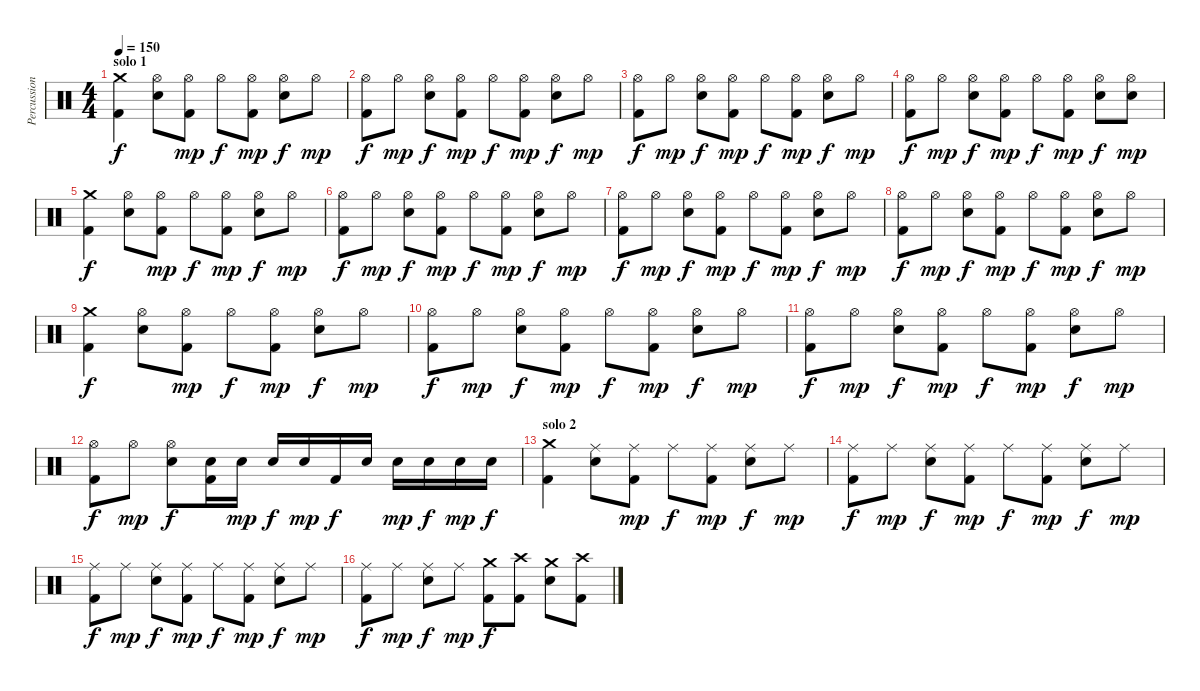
\track ("Percussions" "Percussion") {instrument percussion}
\staff {score}
\articulation defaults
\ts (4 4)
\section ("" "solo 1")
\tempo 150
\clef neutral
\ks c
("Crash medium (hit)" "Kick (hit) 2").4{dy f} ("Hi-Hat (open)" "Electric Snare (hit)").8 ("Hi-Hat (open)" "Kick (hit) 2").8{dy mp} "Hi-Hat (open)".8{dy f} ("Hi-Hat (open)" "Kick (hit) 2").8{dy mp} ("Hi-Hat (open)" "Electric Snare (hit)").8{dy f} "Hi-Hat (open)".8{dy mp} |
("Hi-Hat (open)" "Kick (hit) 2").8{dy f} "Hi-Hat (open)".8{dy mp} ("Hi-Hat (open)" "Electric Snare (hit)").8{dy f} ("Hi-Hat (open)" "Kick (hit) 2").8{dy mp} "Hi-Hat (open)".8{dy f} ("Hi-Hat (open)" "Kick (hit) 2").8{dy mp} ("Hi-Hat (open)" "Electric Snare (hit)").8{dy f} "Hi-Hat (open)".8{dy mp} |
("Hi-Hat (open)" "Kick (hit) 2").8{dy f} "Hi-Hat (open)".8{dy mp} ("Hi-Hat (open)" "Electric Snare (hit)").8{dy f} ("Hi-Hat (open)" "Kick (hit) 2").8{dy mp} "Hi-Hat (open)".8{dy f} ("Hi-Hat (open)" "Kick (hit) 2").8{dy mp} ("Hi-Hat (open)" "Electric Snare (hit)").8{dy f} "Hi-Hat (open)".8{dy mp} |
("Hi-Hat (open)" "Kick (hit) 2").8{dy f} "Hi-Hat (open)".8{dy mp} ("Hi-Hat (open)" "Electric Snare (hit)").8{dy f} ("Hi-Hat (open)" "Kick (hit) 2").8{dy mp} "Hi-Hat (open)".8{dy f} ("Hi-Hat (open)" "Kick (hit) 2").8{dy mp} ("Hi-Hat (open)" "Electric Snare (hit)").8{dy f} ("Hi-Hat (open)" "Electric Snare (hit)").8{dy mp} |
("Crash medium (hit)" "Kick (hit) 2").4{dy f} ("Hi-Hat (open)" "Electric Snare (hit)").8 ("Hi-Hat (open)" "Kick (hit) 2").8{dy mp} "Hi-Hat (open)".8{dy f} ("Hi-Hat (open)" "Kick (hit) 2").8{dy mp} ("Hi-Hat (open)" "Electric Snare (hit)").8{dy f} "Hi-Hat (open)".8{dy mp} |
("Hi-Hat (open)" "Kick (hit) 2").8{dy f} "Hi-Hat (open)".8{dy mp} ("Hi-Hat (open)" "Electric Snare (hit)").8{dy f} ("Hi-Hat (open)" "Kick (hit) 2").8{dy mp} "Hi-Hat (open)".8{dy f} ("Hi-Hat (open)" "Kick (hit) 2").8{dy mp} ("Hi-Hat (open)" "Electric Snare (hit)").8{dy f} "Hi-Hat (open)".8{dy mp} |
("Hi-Hat (open)" "Kick (hit) 2").8{dy f} "Hi-Hat (open)".8{dy mp} ("Hi-Hat (open)" "Electric Snare (hit)").8{dy f} ("Hi-Hat (open)" "Kick (hit) 2").8{dy mp} "Hi-Hat (open)".8{dy f} ("Hi-Hat (open)" "Kick (hit) 2").8{dy mp} ("Hi-Hat (open)" "Electric Snare (hit)").8{dy f} "Hi-Hat (open)".8{dy mp} |
("Hi-Hat (open)" "Kick (hit) 2").8{dy f} "Hi-Hat (open)".8{dy mp} ("Hi-Hat (open)" "Electric Snare (hit)").8{dy f} ("Hi-Hat (open)" "Kick (hit) 2").8{dy mp} "Hi-Hat (open)".8{dy f} ("Hi-Hat (open)" "Kick (hit) 2").8{dy mp} ("Hi-Hat (open)" "Electric Snare (hit)").8{dy f} "Hi-Hat (open)".8{dy mp} |
("Crash medium (hit)" "Kick (hit) 2").4{dy f} ("Hi-Hat (open)" "Electric Snare (hit)").8 ("Hi-Hat (open)" "Kick (hit) 2").8{dy mp} "Hi-Hat (open)".8{dy f} ("Hi-Hat (open)" "Kick (hit) 2").8{dy mp} ("Hi-Hat (open)" "Electric Snare (hit)").8{dy f} "Hi-Hat (open)".8{dy mp} |
("Hi-Hat (open)" "Kick (hit) 2").8{dy f} "Hi-Hat (open)".8{dy mp} ("Hi-Hat (open)" "Electric Snare (hit)").8{dy f} ("Hi-Hat (open)" "Kick (hit) 2").8{dy mp} "Hi-Hat (open)".8{dy f} ("Hi-Hat (open)" "Kick (hit) 2").8{dy mp} ("Hi-Hat (open)" "Electric Snare (hit)").8{dy f} "Hi-Hat (open)".8{dy mp} |
("Hi-Hat (open)" "Kick (hit) 2").8{dy f} "Hi-Hat (open)".8{dy mp} ("Hi-Hat (open)" "Electric Snare (hit)").8{dy f} ("Hi-Hat (open)" "Kick (hit) 2").8{dy mp} "Hi-Hat (open)".8{dy f} ("Hi-Hat (open)" "Kick (hit) 2").8{dy mp} ("Hi-Hat (open)" "Electric Snare (hit)").8{dy f} "Hi-Hat (open)".8{dy mp} |
("Hi-Hat (open)" "Kick (hit) 2").8{dy f} "Hi-Hat (open)".8{dy mp} ("Hi-Hat (open)" "Electric Snare (hit)").8{dy f} ("Electric Snare (hit)" "Kick (hit) 2").16 "Electric Snare (hit)".16{dy mp} "Electric Snare (hit)".16{dy f} "Electric Snare (hit)".16{dy mp} "Kick (hit) 2".16{dy f} "Electric Snare (hit)".16 "Electric Snare (hit)".16{dy mp} "Electric Snare (hit)".16{dy f} "Electric Snare (hit)".16{dy mp} "Electric Snare (hit)".16{dy f} |
\section ("" "solo 2")
("Crash medium (hit)" "Kick (hit) 2").4 ("Ride (middle)" "Electric Snare (hit)").8 ("Ride (middle)" "Kick (hit) 2").8{dy mp} "Ride (middle)".8{dy f} ("Ride (middle)" "Kick (hit) 2").8{dy mp} ("Ride (middle)" "Electric Snare (hit)").8{dy f} "Ride (middle)".8{dy mp} |
("Ride (middle)" "Kick (hit) 2").8{dy f} "Ride (middle)".8{dy mp} ("Ride (middle)" "Electric Snare (hit)").8{dy f} ("Ride (middle)" "Kick (hit) 2").8{dy mp} "Ride (middle)".8{dy f} ("Ride (middle)" "Kick (hit) 2").8{dy mp} ("Ride (middle)" "Electric Snare (hit)").8{dy f} "Ride (middle)".8{dy mp} |
("Ride (middle)" "Kick (hit) 2").8{dy f} "Ride (middle)".8{dy mp} ("Ride (middle)" "Electric Snare (hit)").8{dy f} ("Ride (middle)" "Kick (hit) 2").8{dy mp} "Ride (middle)".8{dy f} ("Ride (middle)" "Kick (hit) 2").8{dy mp} ("Ride (middle)" "Electric Snare (hit)").8{dy f} "Ride (middle)".8{dy mp} |
("Ride (middle)" "Kick (hit) 2").8{dy f} "Ride (middle)".8{dy mp} ("Ride (middle)" "Electric Snare (hit)").8{dy f} "Ride (middle)".8{dy mp} ("Crash medium (hit)" "Kick (hit) 2").8{dy f} ("Crash high (hit)" "Kick (hit) 2").8 ("Crash medium (hit)" "Electric Snare (hit)").8 ("Crash high (hit)" "Kick (hit) 2").8
